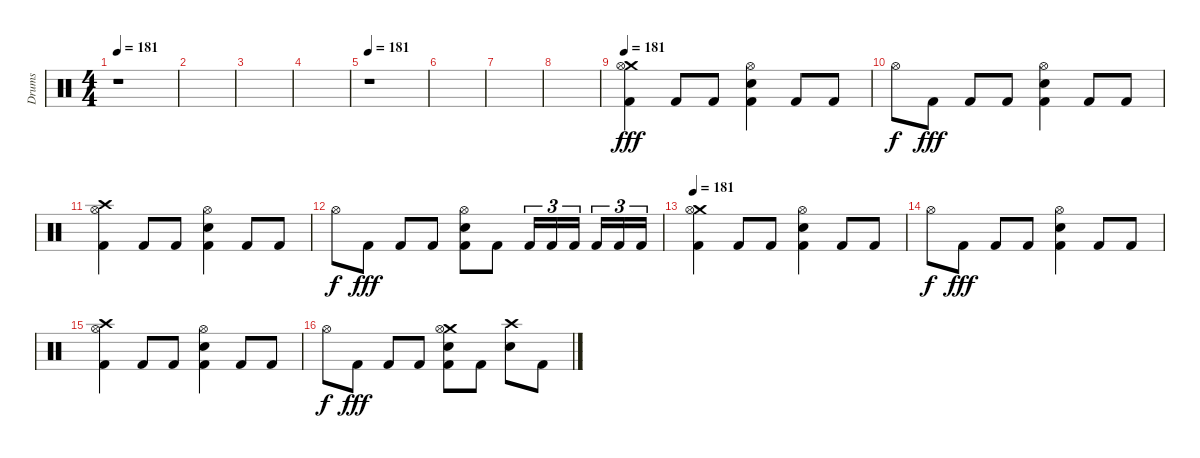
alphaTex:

\track ("Drums" "Drums") {instrument percussion}
\staff {score}
\articulation defaults
\ts (4 4)
\tempo 181
\clef neutral
\ks c
r.1{dy fff} |
|
|
|
\tempo 181
r.1 |
|
|
|
\tempo 181
("Crash medium (hit)" "Hi-Hat (open)" "Kick (hit) 2").4 "Kick (hit) 2".8 "Kick (hit) 2".8 ("Hi-Hat (open)" "Snare (hit) 2" "Kick (hit) 2").4 "Kick (hit) 2".8 "Kick (hit) 2".8 |
"Hi-Hat (open)".8{dy f} "Kick (hit) 2".8{dy fff} "Kick (hit) 2".8 "Kick (hit) 2".8 ("Hi-Hat (open)" "Snare (hit) 2" "Kick (hit) 2").4 "Kick (hit) 2".8 "Kick (hit) 2".8 |
("Crash high (hit)" "Hi-Hat (open)" "Kick (hit) 2").4 "Kick (hit) 2".8 "Kick (hit) 2".8 ("Hi-Hat (open)" "Snare (hit) 2" "Kick (hit) 2").4 "Kick (hit) 2".8 "Kick (hit) 2".8 |
"Hi-Hat (open)".8{dy f} "Kick (hit) 2".8{dy fff} "Kick (hit) 2".8 "Kick (hit) 2".8 ("Hi-Hat (open)" "Snare (hit) 2" "Kick (hit) 2").8 "Kick (hit) 2".8 "Kick (hit) 2".16{tu (3 2)} "Kick (hit) 2".16{tu (3 2)} "Kick (hit) 2".16{tu (3 2)} "Kick (hit) 2".16{tu (3 2)} "Kick (hit) 2".16{tu (3 2)} "Kick (hit) 2".16{tu (3 2)} |
\tempo 181
("Crash medium (hit)" "Hi-Hat (open)" "Kick (hit) 2").4 "Kick (hit) 2".8 "Kick (hit) 2".8 ("Hi-Hat (open)" "Snare (hit) 2" "Kick (hit) 2").4 "Kick (hit) 2".8 "Kick (hit) 2".8 |
"Hi-Hat (open)".8{dy f} "Kick (hit) 2".8{dy fff} "Kick (hit) 2".8 "Kick (hit) 2".8 ("Hi-Hat (open)" "Snare (hit) 2" "Kick (hit) 2").4 "Kick (hit) 2".8 "Kick (hit) 2".8 |
("Crash high (hit)" "Hi-Hat (open)" "Kick (hit) 2").4 "Kick (hit) 2".8 "Kick (hit) 2".8 ("Hi-Hat (open)" "Snare (hit) 2" "Kick (hit) 2").4 "Kick (hit) 2".8 "Kick (hit) 2".8 |
"Hi-Hat (open)".8{dy f} "Kick (hit) 2".8{dy fff} "Kick (hit) 2".8 "Kick (hit) 2".8 ("Crash medium (hit)" "Hi-Hat (open)" "Snare (hit) 2" "Kick (hit) 2").8 "Kick (hit) 2".8 ("Crash high (hit)" "Snare (hit) 2").8 "Kick (hit) 2".8
